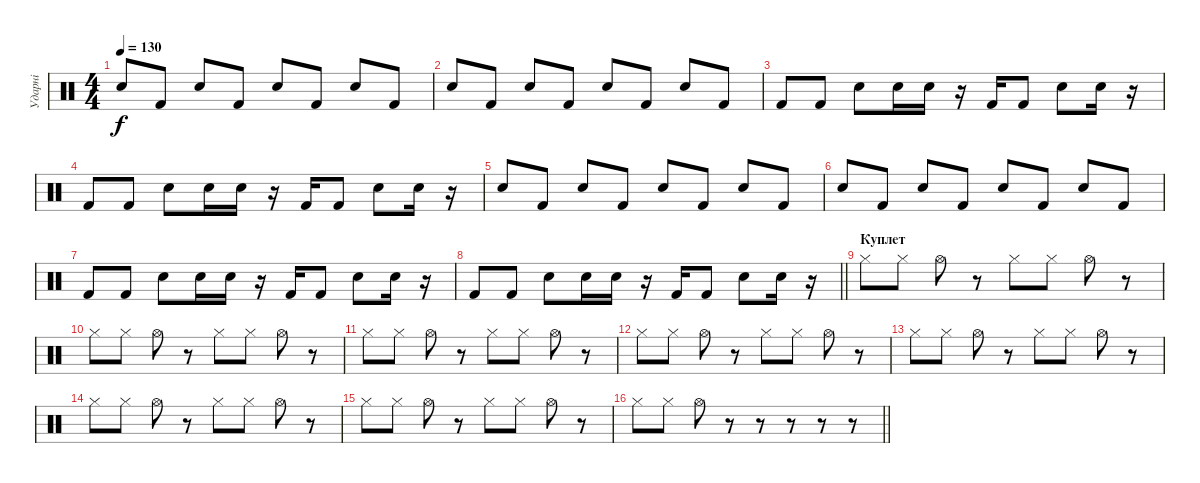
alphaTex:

\track ("Ударні" "Ударні") {instrument percussion}
\staff {score}
\articulation defaults
\ts (4 4)
\tempo 130
\clef neutral
\ks c "Snare (hit) 2".8{dy f} "Kick (hit) 2".8 "Snare (hit) 2".8 "Kick (hit) 2".8 "Snare (hit) 2".8 "Kick (hit) 2".8 "Snare (hit) 2".8 "Kick (hit) 2".8
|
"Snare (hit) 2".8 "Kick (hit) 2".8 "Snare (hit) 2".8 "Kick (hit) 2".8 "Snare (hit) 2".8 "Kick (hit) 2".8 "Snare (hit) 2".8 "Kick (hit) 2".8 |
"Kick (hit) 2".8 "Kick (hit) 2".8 "Snare (hit) 2".8 "Snare (hit) 2".16 "Snare (hit) 2".16 r.16 "Kick (hit) 2".16 "Kick (hit) 2".8 "Snare (hit) 2".8 "Snare (hit) 2".16 r.16 |
"Kick (hit) 2".8 "Kick (hit) 2".8 "Snare (hit) 2".8 "Snare (hit) 2".16 "Snare (hit) 2".16 r.16 "Kick (hit) 2".16 "Kick (hit) 2".8 "Snare (hit) 2".8 "Snare (hit) 2".16 r.16 |
"Snare (hit) 2".8 "Kick (hit) 2".8 "Snare (hit) 2".8 "Kick (hit) 2".8 "Snare (hit) 2".8 "Kick (hit) 2".8 "Snare (hit) 2".8 "Kick (hit) 2".8 |
"Snare (hit) 2".8 "Kick (hit) 2".8 "Snare (hit) 2".8 "Kick (hit) 2".8 "Snare (hit) 2".8 "Kick (hit) 2".8 "Snare (hit) 2".8 "Kick (hit) 2".8 |
"Kick (hit) 2".8 "Kick (hit) 2".8 "Snare (hit) 2".8 "Snare (hit) 2".16 "Snare (hit) 2".16 r.16 "Kick (hit) 2".16 "Kick (hit) 2".8 "Snare (hit) 2".8 "Snare (hit) 2".16 r.16 |
\barLineRight lightlight "Kick (hit) 2".8 "Kick (hit) 2".8 "Snare (hit) 2".8 "Snare (hit) 2".16 "Snare (hit) 2".16
r.16 "Kick (hit) 2".16 "Kick (hit) 2".8 "Snare (hit) 2".8 "Snare (hit) 2".16 r.16 |
\section ("" "Куплет")
"Hi-Hat (closed)".8 "Hi-Hat (closed)".8 "Hi-Hat (open)".8 r.8 "Hi-Hat (closed)".8 "Hi-Hat (closed)".8 "Hi-Hat (open)".8 r.8 |
"Hi-Hat (closed)".8 "Hi-Hat (closed)".8 "Hi-Hat (open)".8 r.8 "Hi-Hat (closed)".8 "Hi-Hat (closed)".8 "Hi-Hat (open)".8 r.8 |
"Hi-Hat (closed)".8 "Hi-Hat (closed)".8 "Hi-Hat (open)".8 r.8 "Hi-Hat (closed)".8 "Hi-Hat (closed)".8 "Hi-Hat (open)".8 r.8 |
"Hi-Hat (closed)".8 "Hi-Hat (closed)".8 "Hi-Hat (open)".8 r.8 "Hi-Hat (closed)".8 "Hi-Hat (closed)".8 "Hi-Hat (open)".8 r.8 |
"Hi-Hat (closed)".8 "Hi-Hat (closed)".8 "Hi-Hat (open)".8 r.8 "Hi-Hat (closed)".8 "Hi-Hat (closed)".8 "Hi-Hat (open)".8 r.8 |
"Hi-Hat (closed)".8 "Hi-Hat (closed)".8 "Hi-Hat (open)".8 r.8 "Hi-Hat (closed)".8 "Hi-Hat (closed)".8 "Hi-Hat (open)".8 r.8 |
"Hi-Hat (closed)".8 "Hi-Hat (closed)".8 "Hi-Hat (open)".8 r.8 "Hi-Hat (closed)".8 "Hi-Hat (closed)".8 "Hi-Hat (open)".8 r.8 |
\barLineRight lightlight "Hi-Hat (closed)".8 "Hi-Hat (closed)".8 "Hi-Hat (open)".8
r.8 r.8 r.8 r.8 r.8
